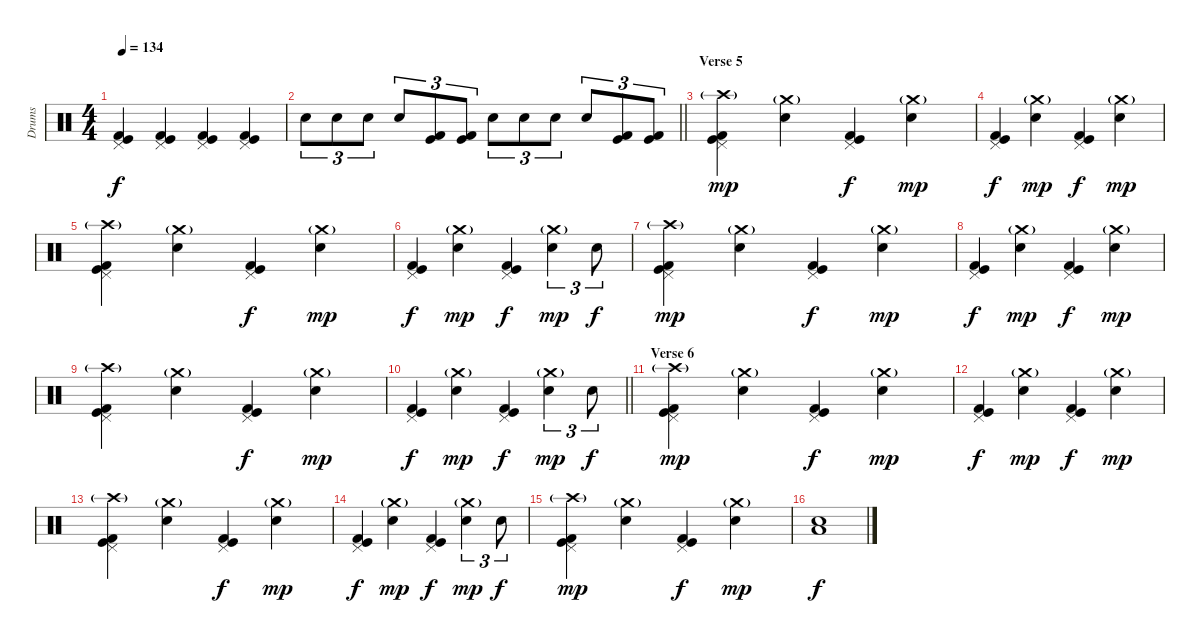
\track ("Drums" "Drums") {instrument percussion}
\staff {score}
\articulation defaults
\ts (4 4)
\tempo 134
\clef neutral
\ks c
("Pedal Hi-Hat (hit)" "Kick (hit)" "Kick (hit) 2").4{dy f} ("Pedal Hi-Hat (hit)" "Kick (hit)" "Kick (hit) 2").4 ("Pedal Hi-Hat (hit)" "Kick (hit)" "Kick (hit) 2").4 ("Pedal Hi-Hat (hit)" "Kick (hit)" "Kick (hit) 2").4 |
\barLineRight lightlight "Electric Snare (hit)".8{tu (3 2)} "Electric Snare (hit)".8{tu (3 2)} "Electric Snare (hit)".8{tu (3 2)} "Electric Snare (hit)".8{tu (3 2)}
("Kick (hit)" "Kick (hit) 2").8{tu (3 2)} ("Kick (hit)" "Kick (hit) 2").8{tu (3 2)} "Electric Snare (hit)".8{tu (3 2)} "Electric Snare (hit)".8{tu (3 2)} "Electric Snare (hit)".8{tu (3 2)} "Electric Snare (hit)".8{tu (3 2)} ("Kick (hit)" "Kick (hit) 2").8{tu (3 2)} ("Kick (hit)" "Kick (hit) 2").8{tu (3 2)} |
\section ("" "Verse 5")
("Pedal Hi-Hat (hit)" "Crash high (hit)"{g} "Kick (hit)" "Kick (hit) 2").4{dy mp} ("Crash medium (hit)"{g} "Electric Snare (hit)").4 ("Pedal Hi-Hat (hit)" "Kick (hit)" "Kick (hit) 2").4{dy f} ("Crash medium (hit)"{g} "Electric Snare (hit)").4{dy mp} |
("Pedal Hi-Hat (hit)" "Kick (hit)" "Kick (hit) 2").4{dy f} ("Crash medium (hit)"{g} "Electric Snare (hit)").4{dy mp} ("Pedal Hi-Hat (hit)" "Kick (hit)" "Kick (hit) 2").4{dy f} ("Crash medium (hit)"{g} "Electric Snare (hit)").4{dy mp} |
("Pedal Hi-Hat (hit)" "Crash high (hit)"{g} "Kick (hit)" "Kick (hit) 2").4 ("Crash medium (hit)"{g} "Electric Snare (hit)").4 ("Pedal Hi-Hat (hit)" "Kick (hit)" "Kick (hit) 2").4{dy f} ("Crash medium (hit)"{g} "Electric Snare (hit)").4{dy mp} |
("Pedal Hi-Hat (hit)" "Kick (hit)" "Kick (hit) 2").4{dy f} ("Crash medium (hit)"{g} "Electric Snare (hit)").4{dy mp} ("Pedal Hi-Hat (hit)" "Kick (hit)" "Kick (hit) 2").4{dy f} ("Crash medium (hit)"{g} "Electric Snare (hit)").4{tu (3 2) dy mp} "Electric Snare (hit)".8{tu (3 2) dy f} |
("Pedal Hi-Hat (hit)" "Crash high (hit)"{g} "Kick (hit)" "Kick (hit) 2").4{dy mp} ("Crash medium (hit)"{g} "Electric Snare (hit)").4 ("Pedal Hi-Hat (hit)" "Kick (hit)" "Kick (hit) 2").4{dy f} ("Crash medium (hit)"{g} "Electric Snare (hit)").4{dy mp} |
("Pedal Hi-Hat (hit)" "Kick (hit)" "Kick (hit) 2").4{dy f} ("Crash medium (hit)"{g} "Electric Snare (hit)").4{dy mp} ("Pedal Hi-Hat (hit)" "Kick (hit)" "Kick (hit) 2").4{dy f} ("Crash medium (hit)"{g} "Electric Snare (hit)").4{dy mp} |
("Pedal Hi-Hat (hit)" "Crash high (hit)"{g} "Kick (hit)" "Kick (hit) 2").4 ("Crash medium (hit)"{g} "Electric Snare (hit)").4 ("Pedal Hi-Hat (hit)" "Kick (hit)" "Kick (hit) 2").4{dy f} ("Crash medium (hit)"{g} "Electric Snare (hit)").4{dy mp} |
\barLineRight lightlight
("Pedal Hi-Hat (hit)" "Kick (hit)" "Kick (hit) 2").4{dy f} ("Crash medium (hit)"{g} "Electric Snare (hit)").4{dy mp} ("Pedal Hi-Hat (hit)" "Kick (hit)" "Kick (hit) 2").4{dy f} ("Crash medium (hit)"{g} "Electric Snare (hit)").4{tu (3 2) dy mp} "Electric Snare (hit)".8{tu (3 2) dy f} |
\section ("" "Verse 6")
("Pedal Hi-Hat (hit)" "Crash high (hit)"{g} "Kick (hit)" "Kick (hit) 2").4{dy mp} ("Crash medium (hit)"{g} "Electric Snare (hit)").4 ("Pedal Hi-Hat (hit)" "Kick (hit)" "Kick (hit) 2").4{dy f} ("Crash medium (hit)"{g} "Electric Snare (hit)").4{dy mp} |
("Pedal Hi-Hat (hit)" "Kick (hit)" "Kick (hit) 2").4{dy f} ("Crash medium (hit)"{g} "Electric Snare (hit)").4{dy mp} ("Pedal Hi-Hat (hit)" "Kick (hit)" "Kick (hit) 2").4{dy f} ("Crash medium (hit)"{g} "Electric Snare (hit)").4{dy mp} |
("Pedal Hi-Hat (hit)" "Crash high (hit)"{g} "Kick (hit)" "Kick (hit) 2").4 ("Crash medium (hit)"{g} "Electric Snare (hit)").4 ("Pedal Hi-Hat (hit)" "Kick (hit)" "Kick (hit) 2").4{dy f} ("Crash medium (hit)"{g} "Electric Snare (hit)").4{dy mp} |
("Pedal Hi-Hat (hit)" "Kick (hit)" "Kick (hit) 2").4{dy f} ("Crash medium (hit)"{g} "Electric Snare (hit)").4{dy mp} ("Pedal Hi-Hat (hit)" "Kick (hit)" "Kick (hit) 2").4{dy f} ("Crash medium (hit)"{g} "Electric Snare (hit)").4{tu (3 2) dy mp} "Electric Snare (hit)".8{tu (3 2) dy f} |
("Pedal Hi-Hat (hit)" "Crash high (hit)"{g} "Kick (hit)" "Kick (hit) 2").4{dy mp} ("Crash medium (hit)"{g} "Electric Snare (hit)").4 ("Pedal Hi-Hat (hit)" "Kick (hit)" "Kick (hit) 2").4{dy f} ("Crash medium (hit)"{g} "Electric Snare (hit)").4{dy mp} |
("Electric Snare (hit)" "Low Floor Tom (hit)").1{dy f}
